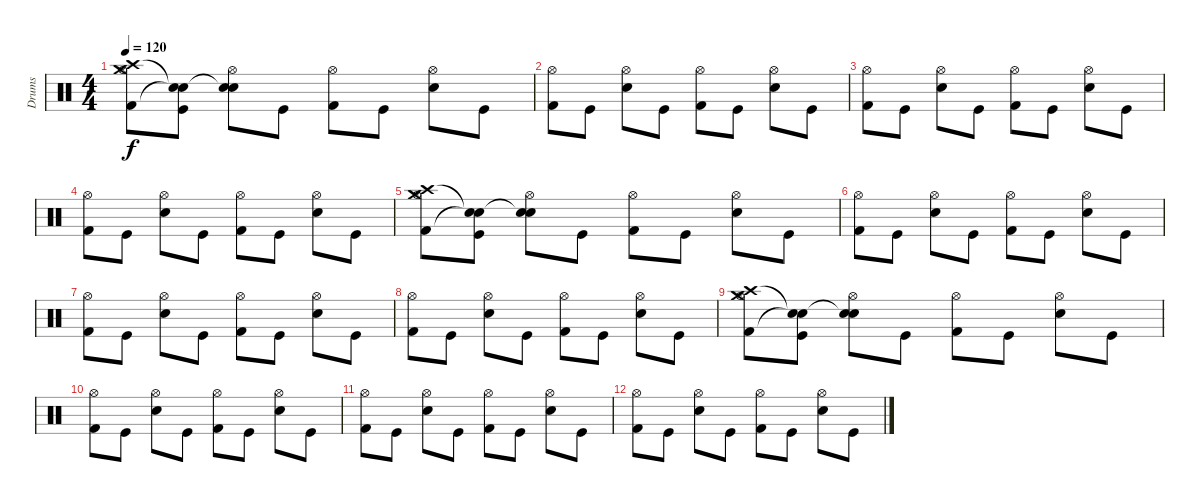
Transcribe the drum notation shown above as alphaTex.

\track ("Drums" "Drums") {instrument percussion}
\staff {score}
\articulation defaults
\ts (4 4)
\tempo 120
\clef neutral
\ks c
("Hi-Hat (open)" "Kick (hit) 2" "Crash high (hit)" "Crash medium (hit)").8{dy f} ("Kick (hit)" "Snare (hit)"{t} "Snare (hit)"{t}).8 ("Hi-Hat (open)" "Electric Snare (hit)" "Snare (hit)"{t}).8 "Kick (hit)".8 ("Hi-Hat (open)" "Kick (hit) 2").8 "Kick (hit)".8 ("Hi-Hat (open)" "Electric Snare (hit)").8 "Kick (hit)".8 |
("Hi-Hat (open)" "Kick (hit) 2").8 "Kick (hit)".8 ("Hi-Hat (open)" "Electric Snare (hit)").8 "Kick (hit)".8 ("Hi-Hat (open)" "Kick (hit) 2").8 "Kick (hit)".8 ("Hi-Hat (open)" "Electric Snare (hit)").8 "Kick (hit)".8 |
("Hi-Hat (open)" "Kick (hit) 2").8 "Kick (hit)".8 ("Hi-Hat (open)" "Electric Snare (hit)").8 "Kick (hit)".8 ("Hi-Hat (open)" "Kick (hit) 2").8 "Kick (hit)".8 ("Hi-Hat (open)" "Electric Snare (hit)").8 "Kick (hit)".8 |
("Hi-Hat (open)" "Kick (hit) 2").8 "Kick (hit)".8 ("Hi-Hat (open)" "Electric Snare (hit)").8 "Kick (hit)".8 ("Hi-Hat (open)" "Kick (hit) 2").8 "Kick (hit)".8 ("Hi-Hat (open)" "Electric Snare (hit)").8 "Kick (hit)".8 |
("Hi-Hat (open)" "Kick (hit) 2" "Crash high (hit)" "Crash medium (hit)").8 ("Kick (hit)" "Snare (hit)"{t} "Snare (hit)"{t}).8 ("Hi-Hat (open)" "Electric Snare (hit)" "Snare (hit)"{t}).8 "Kick (hit)".8 ("Hi-Hat (open)" "Kick (hit) 2").8 "Kick (hit)".8 ("Hi-Hat (open)" "Electric Snare (hit)").8 "Kick (hit)".8 |
("Hi-Hat (open)" "Kick (hit) 2").8 "Kick (hit)".8 ("Hi-Hat (open)" "Electric Snare (hit)").8 "Kick (hit)".8 ("Hi-Hat (open)" "Kick (hit) 2").8 "Kick (hit)".8 ("Hi-Hat (open)" "Electric Snare (hit)").8 "Kick (hit)".8 |
("Hi-Hat (open)" "Kick (hit) 2").8 "Kick (hit)".8 ("Hi-Hat (open)" "Electric Snare (hit)").8 "Kick (hit)".8 ("Hi-Hat (open)" "Kick (hit) 2").8 "Kick (hit)".8 ("Hi-Hat (open)" "Electric Snare (hit)").8 "Kick (hit)".8 |
("Hi-Hat (open)" "Kick (hit) 2").8 "Kick (hit)".8 ("Hi-Hat (open)" "Electric Snare (hit)").8 "Kick (hit)".8 ("Hi-Hat (open)" "Kick (hit) 2").8 "Kick (hit)".8 ("Hi-Hat (open)" "Electric Snare (hit)").8 "Kick (hit)".8 |
("Hi-Hat (open)" "Kick (hit) 2" "Crash high (hit)" "Crash medium (hit)").8 ("Kick (hit)" "Snare (hit)"{t} "Snare (hit)"{t}).8 ("Hi-Hat (open)" "Electric Snare (hit)" "Snare (hit)"{t}).8 "Kick (hit)".8 ("Hi-Hat (open)" "Kick (hit) 2").8{volume 7} "Kick (hit)".8 ("Hi-Hat (open)" "Electric Snare (hit)").8 "Kick (hit)".8 |
("Hi-Hat (open)" "Kick (hit) 2").8{volume 5} "Kick (hit)".8 ("Hi-Hat (open)" "Electric Snare (hit)").8 "Kick (hit)".8 ("Hi-Hat (open)" "Kick (hit) 2").8{volume 4} "Kick (hit)".8 ("Hi-Hat (open)" "Electric Snare (hit)").8 "Kick (hit)".8 |
("Hi-Hat (open)" "Kick (hit) 2").8{volume 3} "Kick (hit)".8 ("Hi-Hat (open)" "Electric Snare (hit)").8 "Kick (hit)".8 ("Hi-Hat (open)" "Kick (hit) 2").8{volume 2} "Kick (hit)".8 ("Hi-Hat (open)" "Electric Snare (hit)").8 "Kick (hit)".8 |
("Hi-Hat (open)" "Kick (hit) 2").8{volume 1} "Kick (hit)".8 ("Hi-Hat (open)" "Electric Snare (hit)").8 "Kick (hit)".8 ("Hi-Hat (open)" "Kick (hit) 2").8{volume 0} "Kick (hit)".8 ("Hi-Hat (open)" "Electric Snare (hit)").8 "Kick (hit)".8
